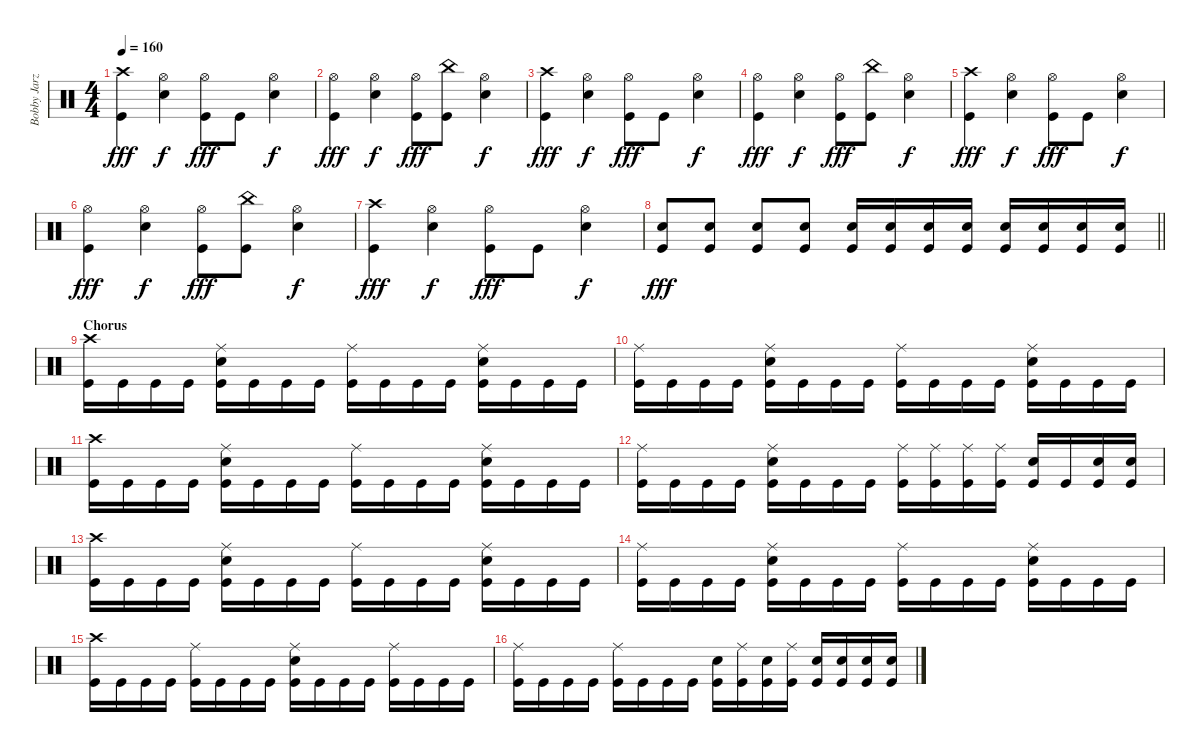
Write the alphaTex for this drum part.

\track ("Bobby Jarzombek" "Bobby Jarz") {instrument percussion}
\staff {score}
\articulation defaults
\ts (4 4)
\tempo 160
\clef neutral
\ks c
("Crash high (hit)" "Kick (hit)").4{dy fff} ("Hi-Hat (open)" "Electric Snare (hit)").4{dy f} ("Hi-Hat (open)" "Kick (hit)").8{dy fff} "Kick (hit)".8 ("Hi-Hat (open)" "Electric Snare (hit)").4{dy f} |
("Hi-Hat (open)" "Kick (hit)").4{dy fff} ("Hi-Hat (open)" "Electric Snare (hit)").4{dy f} ("Hi-Hat (open)" "Kick (hit)").8{dy fff} ("China (hit)" "Kick (hit)").8 ("Hi-Hat (open)" "Electric Snare (hit)").4{dy f} |
("Crash high (hit)" "Kick (hit)").4{dy fff} ("Hi-Hat (open)" "Electric Snare (hit)").4{dy f} ("Hi-Hat (open)" "Kick (hit)").8{dy fff} "Kick (hit)".8 ("Hi-Hat (open)" "Electric Snare (hit)").4{dy f} |
("Hi-Hat (open)" "Kick (hit)").4{dy fff} ("Hi-Hat (open)" "Electric Snare (hit)").4{dy f} ("Hi-Hat (open)" "Kick (hit)").8{dy fff} ("China (hit)" "Kick (hit)").8 ("Hi-Hat (open)" "Electric Snare (hit)").4{dy f} |
("Crash high (hit)" "Kick (hit)").4{dy fff} ("Hi-Hat (open)" "Electric Snare (hit)").4{dy f} ("Hi-Hat (open)" "Kick (hit)").8{dy fff} "Kick (hit)".8 ("Hi-Hat (open)" "Electric Snare (hit)").4{dy f} |
("Hi-Hat (open)" "Kick (hit)").4{dy fff} ("Hi-Hat (open)" "Electric Snare (hit)").4{dy f} ("Hi-Hat (open)" "Kick (hit)").8{dy fff} ("China (hit)" "Kick (hit)").8 ("Hi-Hat (open)" "Electric Snare (hit)").4{dy f} |
("Crash high (hit)" "Kick (hit)").4{dy fff} ("Hi-Hat (open)" "Electric Snare (hit)").4{dy f} ("Hi-Hat (open)" "Kick (hit)").8{dy fff} "Kick (hit)".8 ("Hi-Hat (open)" "Electric Snare (hit)").4{dy f} |
\barLineRight lightlight
("Electric Snare (hit)" "Kick (hit)").8{dy fff} ("Electric Snare (hit)" "Kick (hit)").8 ("Electric Snare (hit)" "Kick (hit)").8 ("Electric Snare (hit)" "Kick (hit)").8 ("Electric Snare (hit)" "Kick (hit)").16 ("Electric Snare (hit)" "Kick (hit)").16 ("Electric Snare (hit)" "Kick (hit)").16 ("Electric Snare (hit)" "Kick (hit)").16 ("Electric Snare (hit)" "Kick (hit)").16 ("Electric Snare (hit)" "Kick (hit)").16 ("Electric Snare (hit)" "Kick (hit)").16 ("Electric Snare (hit)" "Kick (hit)").16 |
\section ("" "Chorus")
("Crash high (hit)" "Kick (hit)").16 "Kick (hit)".16 "Kick (hit)".16 "Kick (hit)".16 ("Ride (middle)" "Electric Snare (hit)" "Kick (hit)").16 "Kick (hit)".16 "Kick (hit)".16 "Kick (hit)".16 ("Ride (middle)" "Kick (hit)").16 "Kick (hit)".16 "Kick (hit)".16 "Kick (hit)".16 ("Ride (middle)" "Electric Snare (hit)" "Kick (hit)").16 "Kick (hit)".16 "Kick (hit)".16 "Kick (hit)".16 |
("Ride (middle)" "Kick (hit)").16 "Kick (hit)".16 "Kick (hit)".16 "Kick (hit)".16 ("Ride (middle)" "Electric Snare (hit)" "Kick (hit)").16 "Kick (hit)".16 "Kick (hit)".16 "Kick (hit)".16 ("Ride (middle)" "Kick (hit)").16 "Kick (hit)".16 "Kick (hit)".16 "Kick (hit)".16 ("Ride (middle)" "Electric Snare (hit)" "Kick (hit)").16 "Kick (hit)".16 "Kick (hit)".16 "Kick (hit)".16 |
("Crash high (hit)" "Kick (hit)").16 "Kick (hit)".16 "Kick (hit)".16 "Kick (hit)".16 ("Ride (middle)" "Electric Snare (hit)" "Kick (hit)").16 "Kick (hit)".16 "Kick (hit)".16 "Kick (hit)".16 ("Ride (middle)" "Kick (hit)").16 "Kick (hit)".16 "Kick (hit)".16 "Kick (hit)".16 ("Ride (middle)" "Electric Snare (hit)" "Kick (hit)").16 "Kick (hit)".16 "Kick (hit)".16 "Kick (hit)".16 |
("Ride (middle)" "Kick (hit)").16 "Kick (hit)".16 "Kick (hit)".16 "Kick (hit)".16 ("Ride (middle)" "Electric Snare (hit)" "Kick (hit)").16 "Kick (hit)".16 "Kick (hit)".16 "Kick (hit)".16 ("Ride (middle)" "Kick (hit)").16 ("Ride (middle)" "Kick (hit)").16 ("Ride (middle)" "Kick (hit)").16 ("Ride (middle)" "Kick (hit)").16 ("Electric Snare (hit)" "Kick (hit)").16 "Kick (hit)".16 ("Electric Snare (hit)" "Kick (hit)").16 ("Electric Snare (hit)" "Kick (hit)").16 |
("Crash high (hit)" "Kick (hit)").16 "Kick (hit)".16 "Kick (hit)".16 "Kick (hit)".16 ("Ride (middle)" "Electric Snare (hit)" "Kick (hit)").16 "Kick (hit)".16 "Kick (hit)".16 "Kick (hit)".16 ("Ride (middle)" "Kick (hit)").16 "Kick (hit)".16 "Kick (hit)".16 "Kick (hit)".16 ("Ride (middle)" "Electric Snare (hit)" "Kick (hit)").16 "Kick (hit)".16 "Kick (hit)".16 "Kick (hit)".16 |
("Ride (middle)" "Kick (hit)").16 "Kick (hit)".16 "Kick (hit)".16 "Kick (hit)".16 ("Ride (middle)" "Electric Snare (hit)" "Kick (hit)").16 "Kick (hit)".16 "Kick (hit)".16 "Kick (hit)".16 ("Ride (middle)" "Kick (hit)").16 "Kick (hit)".16 "Kick (hit)".16 "Kick (hit)".16 ("Ride (middle)" "Electric Snare (hit)" "Kick (hit)").16 "Kick (hit)".16 "Kick (hit)".16 "Kick (hit)".16 |
("Crash high (hit)" "Kick (hit)").16 "Kick (hit)".16 "Kick (hit)".16 "Kick (hit)".16 ("Ride (middle)" "Kick (hit)").16 "Kick (hit)".16 "Kick (hit)".16 "Kick (hit)".16 ("Ride (middle)" "Electric Snare (hit)" "Kick (hit)").16 "Kick (hit)".16 "Kick (hit)".16 "Kick (hit)".16 ("Ride (middle)" "Kick (hit)").16 "Kick (hit)".16 "Kick (hit)".16 "Kick (hit)".16 |
("Ride (middle)" "Kick (hit)").16 "Kick (hit)".16 "Kick (hit)".16 "Kick (hit)".16 ("Ride (middle)" "Kick (hit)").16 "Kick (hit)".16 "Kick (hit)".16 "Kick (hit)".16 ("Electric Snare (hit)" "Kick (hit)").16 ("Ride (middle)" "Kick (hit)").16 ("Electric Snare (hit)" "Kick (hit)").16 ("Ride (middle)" "Kick (hit)").16 ("Electric Snare (hit)" "Kick (hit)").16 ("Electric Snare (hit)" "Kick (hit)").16 ("Electric Snare (hit)" "Kick (hit)").16 ("Electric Snare (hit)" "Kick (hit)").16
